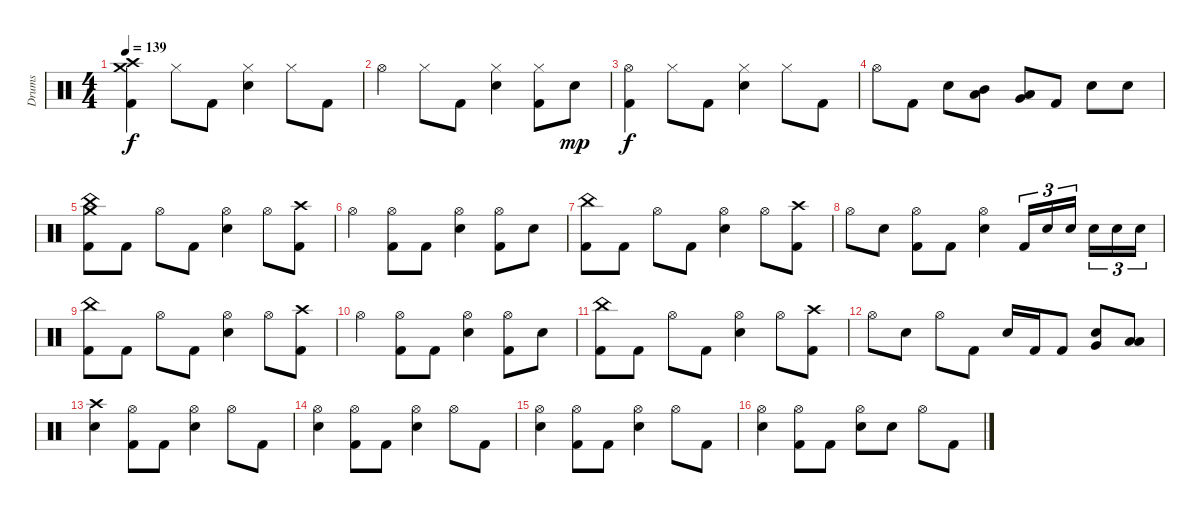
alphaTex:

\track ("Drums" "Drums") {instrument percussion}
\staff {score}
\articulation defaults
\ts (4 4)
\tempo 139
\clef neutral
\ks c
("Crash high (hit)" "Crash medium (hit)" "Kick (hit) 2").4{dy f} "Hi-Hat (closed)".8 "Kick (hit) 2".8 ("Hi-Hat (closed)" "Snare (hit) 2").4 "Hi-Hat (closed)".8 "Kick (hit) 2".8 |
"Hi-Hat (open)".4 "Hi-Hat (closed)".8 "Kick (hit) 2".8 ("Hi-Hat (closed)" "Snare (hit) 2").4 ("Hi-Hat (closed)" "Kick (hit) 2").8 "Snare (hit) 2".8{dy mp} |
("Hi-Hat (open)" "Kick (hit) 2").4{dy f} "Hi-Hat (closed)".8 "Kick (hit) 2".8 ("Hi-Hat (closed)" "Snare (hit) 2").4 "Hi-Hat (closed)".8 "Kick (hit) 2".8 |
"Hi-Hat (open)".8 "Kick (hit) 2".8 "Snare (hit) 2".8 ("Mid Tom (hit)" "Low Tom (hit)").8 ("Very Low Tom (hit)" "Low Tom (hit)").8 "Kick (hit) 2".8 "Snare (hit) 2".8 "Snare (hit) 2".8 |
("Crash medium (hit)" "China (hit)" "Kick (hit) 2").8 "Kick (hit) 2".8 "Hi-Hat (open)".8 "Kick (hit) 2".8 ("Hi-Hat (open)" "Snare (hit) 2").4 "Hi-Hat (open)".8 ("Crash high (hit)" "Kick (hit) 2").8 |
"Hi-Hat (open)".4 ("Hi-Hat (open)" "Kick (hit) 2").8 "Kick (hit) 2".8 ("Hi-Hat (open)" "Snare (hit) 2").4 ("Hi-Hat (open)" "Kick (hit) 2").8 "Snare (hit) 2".8 |
("China (hit)" "Kick (hit) 2").8 "Kick (hit) 2".8 "Hi-Hat (open)".8 "Kick (hit) 2".8 ("Hi-Hat (open)" "Snare (hit) 2").4 "Hi-Hat (open)".8 ("Crash high (hit)" "Kick (hit) 2").8 |
"Hi-Hat (open)".8 "Snare (hit) 2".8 ("Hi-Hat (open)" "Kick (hit) 2").8 "Kick (hit) 2".8 ("Hi-Hat (open)" "Snare (hit) 2").4 "Kick (hit) 2".16{tu (3 2)} "Snare (hit) 2".16{tu (3 2)} "Snare (hit) 2".16{tu (3 2) beam splitsecondary} "Snare (hit) 2".16{tu (3 2)} "Snare (hit) 2".16{tu (3 2)} "Snare (hit) 2".16{tu (3 2)} |
("China (hit)" "Kick (hit) 2").8 "Kick (hit) 2".8 "Hi-Hat (open)".8 "Kick (hit) 2".8 ("Hi-Hat (open)" "Snare (hit) 2").4 "Hi-Hat (open)".8 ("Crash high (hit)" "Kick (hit) 2").8 |
"Hi-Hat (open)".4 ("Hi-Hat (open)" "Kick (hit) 2").8 "Kick (hit) 2".8 ("Hi-Hat (open)" "Snare (hit) 2").4 ("Hi-Hat (open)" "Kick (hit) 2").8 "Snare (hit) 2".8 |
("China (hit)" "Kick (hit) 2").8 "Kick (hit) 2".8 "Hi-Hat (open)".8 "Kick (hit) 2".8 ("Hi-Hat (open)" "Snare (hit) 2").4 "Hi-Hat (open)".8 ("Crash high (hit)" "Kick (hit) 2").8 |
"Hi-Hat (open)".8 "Snare (hit) 2".8 "Hi-Hat (open)".8 "Kick (hit) 2".8 "Snare (hit) 2".16 "Kick (hit) 2".16 "Kick (hit) 2".8 ("Snare (hit) 2" "Very Low Tom (hit)").8 ("Low Tom (hit)" "Low Floor Tom (hit)").8 |
("Crash high (hit)" "Snare (hit) 2").4 ("Hi-Hat (open)" "Kick (hit) 2").8 "Kick (hit) 2".8 ("Hi-Hat (open)" "Snare (hit) 2").4 "Hi-Hat (open)".8 "Kick (hit) 2".8 |
("Hi-Hat (open)" "Snare (hit) 2").4 ("Hi-Hat (open)" "Kick (hit) 2").8 "Kick (hit) 2".8 ("Hi-Hat (open)" "Snare (hit) 2").4 "Hi-Hat (open)".8 "Kick (hit) 2".8 |
("Hi-Hat (open)" "Snare (hit) 2").4 ("Hi-Hat (open)" "Kick (hit) 2").8 "Kick (hit) 2".8 ("Hi-Hat (open)" "Snare (hit) 2").4 "Hi-Hat (open)".8 "Kick (hit) 2".8 |
("Hi-Hat (open)" "Snare (hit) 2").4 ("Hi-Hat (open)" "Kick (hit) 2").8 "Kick (hit) 2".8 ("Hi-Hat (open)" "Snare (hit) 2").8 "Snare (hit) 2".8 "Hi-Hat (open)".8 "Kick (hit) 2".8
